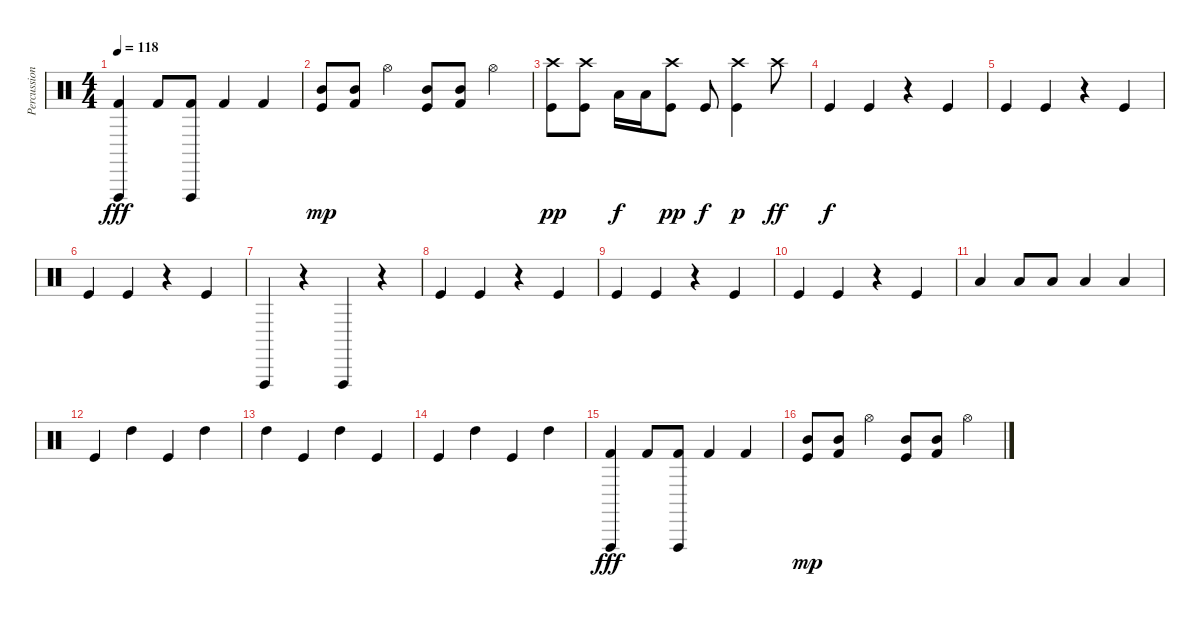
\track ("Percussion" "Percussion") {instrument percussion}
\staff {score}
\articulation defaults
\ts (4 4)
\tempo 118
\clef neutral
\ks c
("Vibraslap (hit)" "Kick (hit) 2").4{dy fff} "Kick (hit) 2".8 ("Vibraslap (hit)" "Kick (hit) 2").8 "Kick (hit) 2".4 "Kick (hit) 2".4 |
("Mid Tom (hit)" "Kick (hit)").8{dy mp} ("Mid Tom (hit)" "Kick (hit) 2").8 "Hi-Hat (open)".4 ("Mid Tom (hit)" "Kick (hit)").8 ("Mid Tom (hit)" "Kick (hit) 2").8 "Hi-Hat (open)".4 |
("Kick (hit)" "Crash high (hit)").8{dy pp} ("Kick (hit)" "Crash high (hit)").8 "Low Tom (hit)".16{dy f} "Low Tom (hit)".16 ("Kick (hit)" "Crash high (hit)").8{dy pp} "Kick (hit)".8{dy f} ("Kick (hit)" "Crash high (hit)").4{dy p} "Crash high (hit)".8{dy ff} |
"Kick (hit)".4{dy f} "Kick (hit)".4 r.4 "Kick (hit)".4 |
"Kick (hit)".4 "Kick (hit)".4 r.4 "Kick (hit)".4 |
"Kick (hit)".4 "Kick (hit)".4 r.4 "Kick (hit)".4 |
"Vibraslap (hit)".4 r.4 "Vibraslap (hit)".4 r.4 |
"Kick (hit)".4 "Kick (hit)".4 r.4 "Kick (hit)".4 |
"Kick (hit)".4 "Kick (hit)".4 r.4 "Kick (hit)".4 |
"Kick (hit)".4 "Kick (hit)".4 r.4 "Kick (hit)".4 |
"Low Tom (hit)".4 "Low Tom (hit)".8 "Low Tom (hit)".8 "Low Tom (hit)".4 "Low Tom (hit)".4 |
"Kick (hit)".4 "High Tom (hit)".4 "Kick (hit)".4 "High Tom (hit)".4 |
"High Tom (hit)".4 "Kick (hit)".4 "High Tom (hit)".4 "Kick (hit)".4 |
"Kick (hit)".4 "High Tom (hit)".4 "Kick (hit)".4 "High Tom (hit)".4 |
("Vibraslap (hit)" "Kick (hit) 2").4{dy fff} "Kick (hit) 2".8 ("Vibraslap (hit)" "Kick (hit) 2").8 "Kick (hit) 2".4 "Kick (hit) 2".4 |
("Mid Tom (hit)" "Kick (hit)").8{dy mp} ("Mid Tom (hit)" "Kick (hit) 2").8 "Hi-Hat (open)".4 ("Mid Tom (hit)" "Kick (hit)").8 ("Mid Tom (hit)" "Kick (hit) 2").8 "Hi-Hat (open)".4
